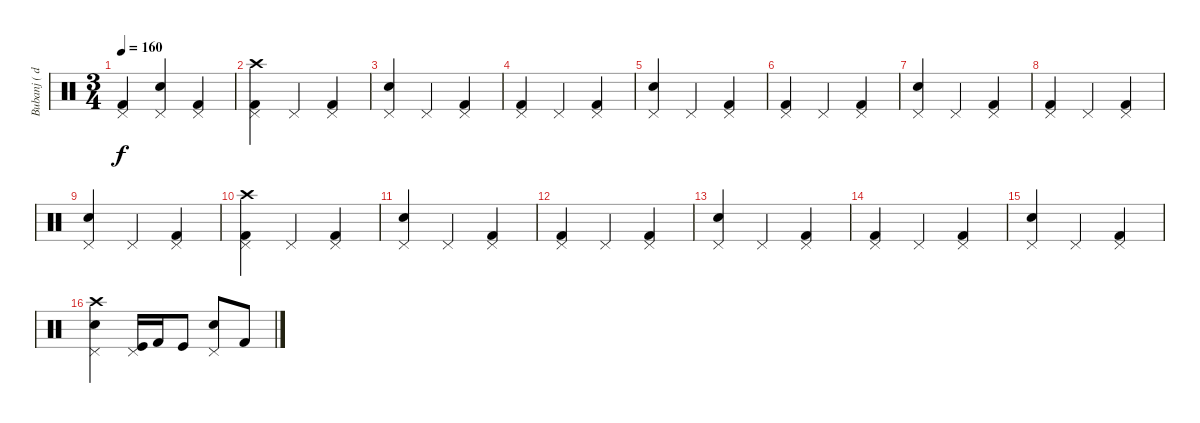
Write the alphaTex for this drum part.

\track ("Bubanj ( drums )" "Bubanj ( d") {instrument percussion}
\staff {score}
\articulation defaults
\ts (3 4)
\tempo 160
\clef neutral
\ks c
("Kick (hit) 2" "Pedal Hi-Hat (hit)").4{dy f} ("Snare (hit) 2" "Pedal Hi-Hat (hit)").4 ("Kick (hit) 2" "Pedal Hi-Hat (hit)").4 |
("Kick (hit) 2" "Crash high (hit)" "Pedal Hi-Hat (hit)").4 "Pedal Hi-Hat (hit)".4 ("Kick (hit) 2" "Pedal Hi-Hat (hit)").4 |
("Snare (hit) 2" "Pedal Hi-Hat (hit)").4 "Pedal Hi-Hat (hit)".4 ("Kick (hit) 2" "Pedal Hi-Hat (hit)").4 |
("Kick (hit) 2" "Pedal Hi-Hat (hit)").4 "Pedal Hi-Hat (hit)".4 ("Kick (hit) 2" "Pedal Hi-Hat (hit)").4 |
("Snare (hit) 2" "Pedal Hi-Hat (hit)").4 "Pedal Hi-Hat (hit)".4 ("Kick (hit) 2" "Pedal Hi-Hat (hit)").4 |
("Kick (hit) 2" "Pedal Hi-Hat (hit)").4 "Pedal Hi-Hat (hit)".4 ("Kick (hit) 2" "Pedal Hi-Hat (hit)").4 |
("Snare (hit) 2" "Pedal Hi-Hat (hit)").4 "Pedal Hi-Hat (hit)".4 ("Kick (hit) 2" "Pedal Hi-Hat (hit)").4 |
("Kick (hit) 2" "Pedal Hi-Hat (hit)").4 "Pedal Hi-Hat (hit)".4 ("Kick (hit) 2" "Pedal Hi-Hat (hit)").4 |
("Snare (hit) 2" "Pedal Hi-Hat (hit)").4 "Pedal Hi-Hat (hit)".4 ("Kick (hit) 2" "Pedal Hi-Hat (hit)").4 |
("Kick (hit) 2" "Crash high (hit)" "Pedal Hi-Hat (hit)").4 "Pedal Hi-Hat (hit)".4 ("Kick (hit) 2" "Pedal Hi-Hat (hit)").4 |
("Snare (hit) 2" "Pedal Hi-Hat (hit)").4 "Pedal Hi-Hat (hit)".4 ("Kick (hit) 2" "Pedal Hi-Hat (hit)").4 |
("Kick (hit) 2" "Pedal Hi-Hat (hit)").4 "Pedal Hi-Hat (hit)".4 ("Kick (hit) 2" "Pedal Hi-Hat (hit)").4 |
("Snare (hit) 2" "Pedal Hi-Hat (hit)").4 "Pedal Hi-Hat (hit)".4 ("Kick (hit) 2" "Pedal Hi-Hat (hit)").4 |
("Kick (hit) 2" "Pedal Hi-Hat (hit)").4 "Pedal Hi-Hat (hit)".4 ("Kick (hit) 2" "Pedal Hi-Hat (hit)").4 |
("Snare (hit) 2" "Pedal Hi-Hat (hit)").4 "Pedal Hi-Hat (hit)".4 ("Kick (hit) 2" "Pedal Hi-Hat (hit)").4 |
("Snare (hit) 2" "Crash high (hit)" "Pedal Hi-Hat (hit)").4 ("Kick (hit)" "Pedal Hi-Hat (hit)").16 "Kick (hit) 2".16 "Kick (hit)".8 ("Snare (hit) 2" "Pedal Hi-Hat (hit)").8 "Kick (hit) 2".8
